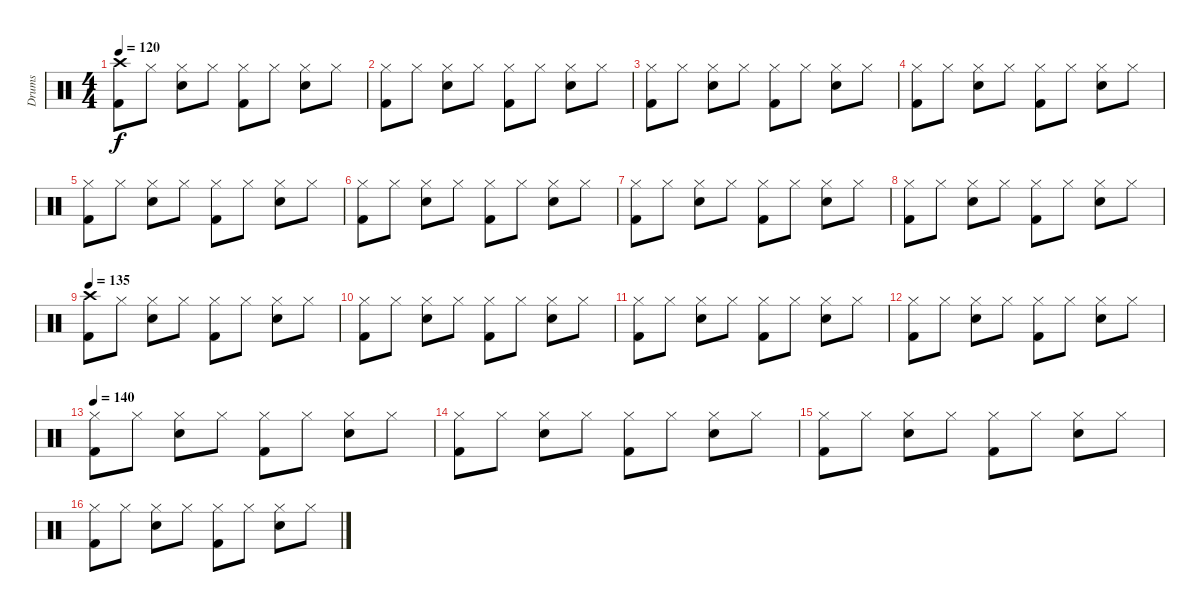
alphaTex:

\track ("Drums" "Drums") {instrument percussion}
\staff {score}
\articulation defaults
\ts (4 4)
\tempo 120
\clef neutral
\ks c
("Crash high (hit)" "Kick (hit) 2").8{dy f} "Hi-Hat (closed)".8 ("Hi-Hat (closed)" "Electric Snare (hit)").8 "Hi-Hat (closed)".8 ("Hi-Hat (closed)" "Kick (hit) 2").8 "Hi-Hat (closed)".8 ("Hi-Hat (closed)" "Electric Snare (hit)").8 "Hi-Hat (closed)".8 |
("Hi-Hat (closed)" "Kick (hit) 2").8 "Hi-Hat (closed)".8 ("Hi-Hat (closed)" "Electric Snare (hit)").8 "Hi-Hat (closed)".8 ("Hi-Hat (closed)" "Kick (hit) 2").8 "Hi-Hat (closed)".8 ("Hi-Hat (closed)" "Electric Snare (hit)").8 "Hi-Hat (closed)".8 |
("Hi-Hat (closed)" "Kick (hit) 2").8 "Hi-Hat (closed)".8 ("Hi-Hat (closed)" "Electric Snare (hit)").8 "Hi-Hat (closed)".8 ("Hi-Hat (closed)" "Kick (hit) 2").8 "Hi-Hat (closed)".8 ("Hi-Hat (closed)" "Electric Snare (hit)").8 "Hi-Hat (closed)".8 |
("Hi-Hat (closed)" "Kick (hit) 2").8 "Hi-Hat (closed)".8 ("Hi-Hat (closed)" "Electric Snare (hit)").8 "Hi-Hat (closed)".8 ("Hi-Hat (closed)" "Kick (hit) 2").8 "Hi-Hat (closed)".8 ("Hi-Hat (closed)" "Electric Snare (hit)").8 "Hi-Hat (closed)".8 |
("Hi-Hat (closed)" "Kick (hit) 2").8 "Hi-Hat (closed)".8 ("Hi-Hat (closed)" "Electric Snare (hit)").8 "Hi-Hat (closed)".8 ("Hi-Hat (closed)" "Kick (hit) 2").8 "Hi-Hat (closed)".8 ("Hi-Hat (closed)" "Electric Snare (hit)").8 "Hi-Hat (closed)".8 |
("Hi-Hat (closed)" "Kick (hit) 2").8 "Hi-Hat (closed)".8 ("Hi-Hat (closed)" "Electric Snare (hit)").8 "Hi-Hat (closed)".8 ("Hi-Hat (closed)" "Kick (hit) 2").8 "Hi-Hat (closed)".8 ("Hi-Hat (closed)" "Electric Snare (hit)").8 "Hi-Hat (closed)".8 |
("Hi-Hat (closed)" "Kick (hit) 2").8 "Hi-Hat (closed)".8 ("Hi-Hat (closed)" "Electric Snare (hit)").8 "Hi-Hat (closed)".8 ("Hi-Hat (closed)" "Kick (hit) 2").8 "Hi-Hat (closed)".8 ("Hi-Hat (closed)" "Electric Snare (hit)").8 "Hi-Hat (closed)".8 |
("Hi-Hat (closed)" "Kick (hit) 2").8 "Hi-Hat (closed)".8 ("Hi-Hat (closed)" "Electric Snare (hit)").8 "Hi-Hat (closed)".8 ("Hi-Hat (closed)" "Kick (hit) 2").8 "Hi-Hat (closed)".8 ("Hi-Hat (closed)" "Electric Snare (hit)").8 "Hi-Hat (closed)".8 |
\tempo 135
("Crash high (hit)" "Kick (hit) 2").8 "Hi-Hat (closed)".8 ("Hi-Hat (closed)" "Electric Snare (hit)").8 "Hi-Hat (closed)".8 ("Hi-Hat (closed)" "Kick (hit) 2").8 "Hi-Hat (closed)".8 ("Hi-Hat (closed)" "Electric Snare (hit)").8 "Hi-Hat (closed)".8 |
("Hi-Hat (closed)" "Kick (hit) 2").8 "Hi-Hat (closed)".8 ("Hi-Hat (closed)" "Electric Snare (hit)").8 "Hi-Hat (closed)".8 ("Hi-Hat (closed)" "Kick (hit) 2").8 "Hi-Hat (closed)".8 ("Hi-Hat (closed)" "Electric Snare (hit)").8 "Hi-Hat (closed)".8 |
("Hi-Hat (closed)" "Kick (hit) 2").8 "Hi-Hat (closed)".8 ("Hi-Hat (closed)" "Electric Snare (hit)").8 "Hi-Hat (closed)".8 ("Hi-Hat (closed)" "Kick (hit) 2").8 "Hi-Hat (closed)".8 ("Hi-Hat (closed)" "Electric Snare (hit)").8 "Hi-Hat (closed)".8 |
("Hi-Hat (closed)" "Kick (hit) 2").8 "Hi-Hat (closed)".8 ("Hi-Hat (closed)" "Electric Snare (hit)").8 "Hi-Hat (closed)".8 ("Hi-Hat (closed)" "Kick (hit) 2").8 "Hi-Hat (closed)".8 ("Hi-Hat (closed)" "Electric Snare (hit)").8 "Hi-Hat (closed)".8 |
\tempo 140
("Hi-Hat (closed)" "Kick (hit) 2").8 "Hi-Hat (closed)".8 ("Hi-Hat (closed)" "Electric Snare (hit)").8 "Hi-Hat (closed)".8 ("Hi-Hat (closed)" "Kick (hit) 2").8 "Hi-Hat (closed)".8 ("Hi-Hat (closed)" "Electric Snare (hit)").8 "Hi-Hat (closed)".8 |
("Hi-Hat (closed)" "Kick (hit) 2").8 "Hi-Hat (closed)".8 ("Hi-Hat (closed)" "Electric Snare (hit)").8 "Hi-Hat (closed)".8 ("Hi-Hat (closed)" "Kick (hit) 2").8 "Hi-Hat (closed)".8 ("Hi-Hat (closed)" "Electric Snare (hit)").8 "Hi-Hat (closed)".8 |
("Hi-Hat (closed)" "Kick (hit) 2").8 "Hi-Hat (closed)".8 ("Hi-Hat (closed)" "Electric Snare (hit)").8 "Hi-Hat (closed)".8 ("Hi-Hat (closed)" "Kick (hit) 2").8 "Hi-Hat (closed)".8 ("Hi-Hat (closed)" "Electric Snare (hit)").8 "Hi-Hat (closed)".8 |
("Hi-Hat (closed)" "Kick (hit) 2").8 "Hi-Hat (closed)".8 ("Hi-Hat (closed)" "Electric Snare (hit)").8 "Hi-Hat (closed)".8 ("Hi-Hat (closed)" "Kick (hit) 2").8 "Hi-Hat (closed)".8 ("Hi-Hat (closed)" "Electric Snare (hit)").8 "Hi-Hat (closed)".8
